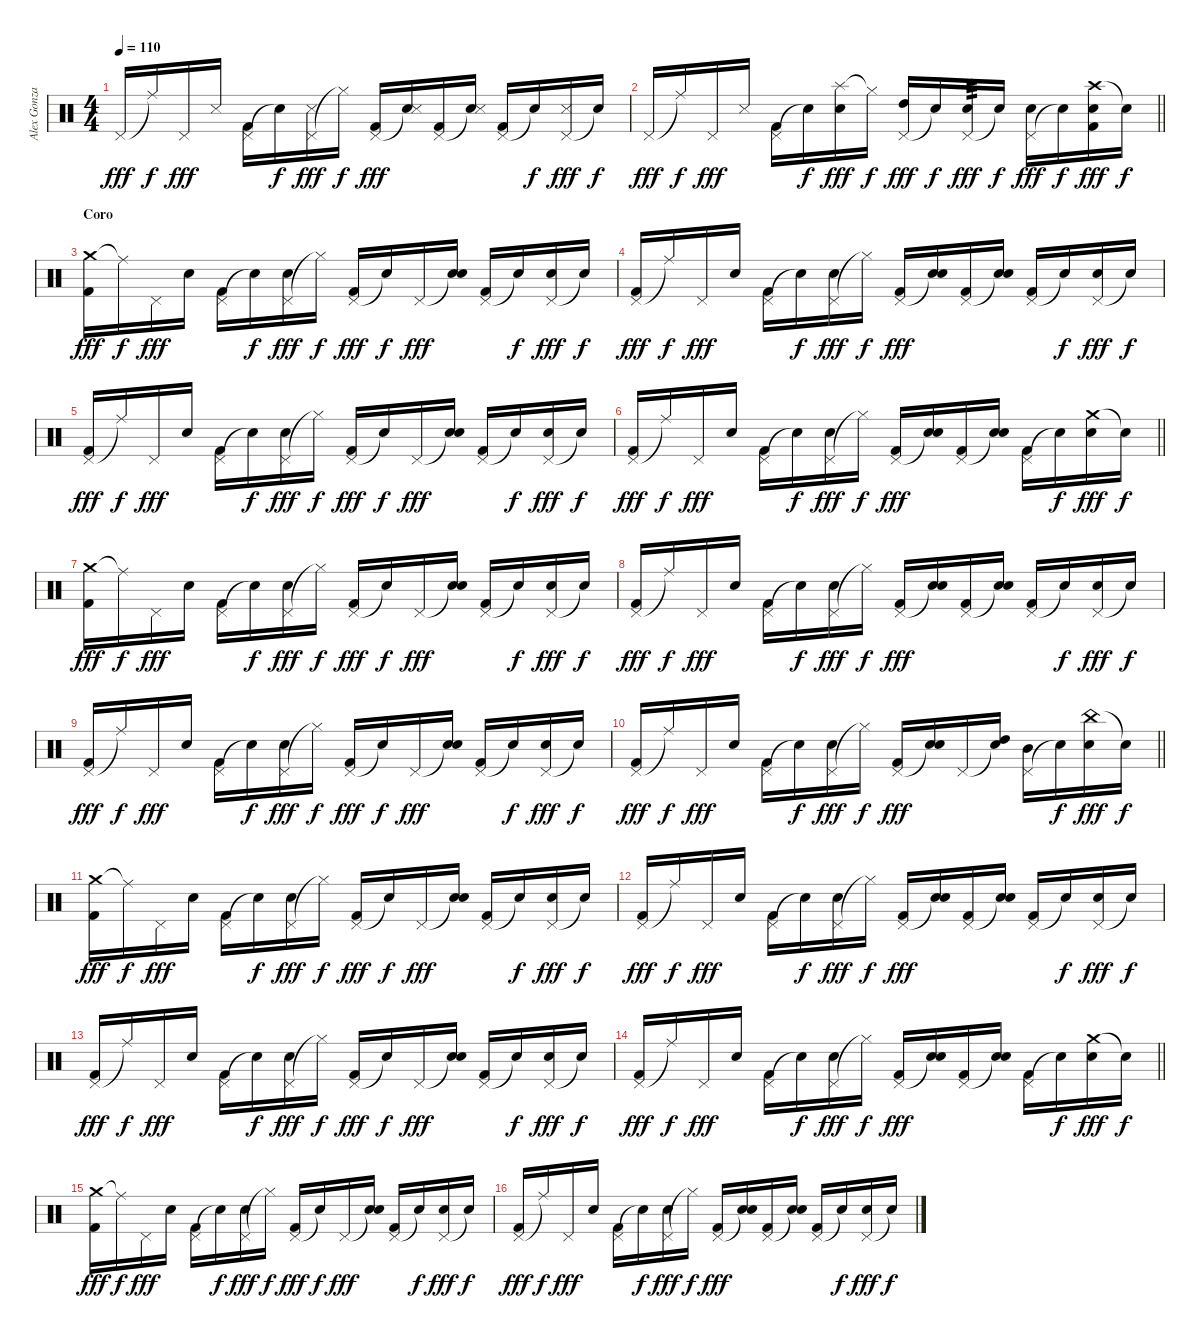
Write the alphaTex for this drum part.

\track ("Alex Gonzalez" "Alex Gonza") {instrument percussion}
\staff {score}
\articulation defaults
\ts (4 4)
\tempo 110
\clef neutral
\ks c "Pedal Hi-Hat (hit)".16{dy fff} "Ride (middle)"{t}.16{dy f} "Pedal Hi-Hat (hit)".16{dy fff} "Snare (side stick) 3".16
("Pedal Hi-Hat (hit)" "Kick (hit) 2").16 "Snare (hit)"{t}.16{dy f} ("Pedal Hi-Hat (hit)" "Snare (side stick) 3").16{dy fff} "Hi-Hat (closed)"{t}.16{dy f} ("Pedal Hi-Hat (hit)" "Kick (hit) 2").16{dy fff} ("Snare (hit)"{t} "Snare (side stick) 3").16 ("Pedal Hi-Hat (hit)" "Kick (hit) 2").16 ("Snare (hit)"{t} "Snare (side stick) 3").16 ("Pedal Hi-Hat (hit)" "Kick (hit) 2").16 "Snare (hit)"{t}.16{dy f} ("Pedal Hi-Hat (hit)" "Snare (side stick) 3").16{dy fff} "Snare (hit)"{t}.16{dy f} |
\barLineRight lightlight "Pedal Hi-Hat (hit)".16{dy fff} "Ride (middle)"{t}.16{dy f} "Pedal Hi-Hat (hit)".16{dy fff} "Snare (side stick) 3".16
("Pedal Hi-Hat (hit)" "Kick (hit) 2").16 "Snare (hit)"{t}.16{dy f} ("Splash (hit)" "Electric Snare (hit)").16{dy fff} "Hi-Hat (closed)"{t}.16{dy f} ("Pedal Hi-Hat (hit)" "High Tom (hit)").16{dy fff} "Snare (hit)"{t}.16{dy f} ("Pedal Hi-Hat (hit)" "Electric Snare (hit)").16{tp 3 dy fff} "Snare (hit)"{t}.16{dy f} ("Pedal Hi-Hat (hit)" "Electric Snare (hit)").16{dy fff} "Snare (hit)"{t}.16{dy f} ("Crash high (hit)" "Electric Snare (hit)" "Kick (hit) 2").16{dy fff} "Snare (hit)"{t}.16{dy f} |
\section ("" "Coro")
("Crash medium (hit)" "Kick (hit) 2").16{dy fff} "Ride (middle)"{t}.16{dy f} "Pedal Hi-Hat (hit)".16{dy fff} "Electric Snare (hit)".16 ("Pedal Hi-Hat (hit)" "Kick (hit) 2").16 "Snare (hit)"{t}.16{dy f} ("Pedal Hi-Hat (hit)" "Electric Snare (hit)").16{dy fff} "Hi-Hat (closed)"{t}.16{dy f} ("Pedal Hi-Hat (hit)" "Kick (hit) 2").16{dy fff} "Snare (hit)"{t}.16{dy f} "Pedal Hi-Hat (hit)".16{dy fff} ("Snare (hit)"{t} "Electric Snare (hit)").16 ("Pedal Hi-Hat (hit)" "Kick (hit) 2").16 "Snare (hit)"{t}.16{dy f} ("Pedal Hi-Hat (hit)" "Electric Snare (hit)").16{dy fff} "Snare (hit)"{t}.16{dy f} |
("Pedal Hi-Hat (hit)" "Kick (hit) 2").16{dy fff} "Ride (middle)"{t}.16{dy f} "Pedal Hi-Hat (hit)".16{dy fff} "Electric Snare (hit)".16 ("Pedal Hi-Hat (hit)" "Kick (hit) 2").16 "Snare (hit)"{t}.16{dy f} ("Pedal Hi-Hat (hit)" "Electric Snare (hit)").16{dy fff} "Hi-Hat (closed)"{t}.16{dy f} ("Pedal Hi-Hat (hit)" "Kick (hit) 2").16{dy fff} ("Snare (hit)"{t} "Electric Snare (hit)").16 ("Pedal Hi-Hat (hit)" "Kick (hit) 2").16 ("Snare (hit)"{t} "Electric Snare (hit)").16 ("Pedal Hi-Hat (hit)" "Kick (hit) 2").16 "Snare (hit)"{t}.16{dy f} ("Pedal Hi-Hat (hit)" "Electric Snare (hit)").16{dy fff} "Snare (hit)"{t}.16{dy f} |
("Pedal Hi-Hat (hit)" "Kick (hit) 2").16{dy fff} "Ride (middle)"{t}.16{dy f} "Pedal Hi-Hat (hit)".16{dy fff} "Electric Snare (hit)".16 ("Pedal Hi-Hat (hit)" "Kick (hit) 2").16 "Snare (hit)"{t}.16{dy f} ("Pedal Hi-Hat (hit)" "Electric Snare (hit)").16{dy fff} "Hi-Hat (closed)"{t}.16{dy f} ("Pedal Hi-Hat (hit)" "Kick (hit) 2").16{dy fff} "Snare (hit)"{t}.16{dy f} "Pedal Hi-Hat (hit)".16{dy fff} ("Snare (hit)"{t} "Electric Snare (hit)").16 ("Pedal Hi-Hat (hit)" "Kick (hit) 2").16 "Snare (hit)"{t}.16{dy f} ("Pedal Hi-Hat (hit)" "Electric Snare (hit)").16{dy fff} "Snare (hit)"{t}.16{dy f} |
\barLineRight lightlight
("Pedal Hi-Hat (hit)" "Kick (hit) 2").16{dy fff} "Ride (middle)"{t}.16{dy f} "Pedal Hi-Hat (hit)".16{dy fff} "Electric Snare (hit)".16 ("Pedal Hi-Hat (hit)" "Kick (hit) 2").16 "Snare (hit)"{t}.16{dy f} ("Pedal Hi-Hat (hit)" "Electric Snare (hit)").16{dy fff} "Hi-Hat (closed)"{t}.16{dy f} ("Pedal Hi-Hat (hit)" "Kick (hit) 2").16{dy fff} ("Snare (hit)"{t} "Electric Snare (hit)").16 ("Pedal Hi-Hat (hit)" "Kick (hit) 2").16 ("Snare (hit)"{t} "Electric Snare (hit)").16 ("Pedal Hi-Hat (hit)" "Kick (hit) 2").16 "Snare (hit)"{t}.16{dy f} ("Crash medium (hit)" "Electric Snare (hit)").16{dy fff} "Snare (hit)"{t}.16{dy f} |
("Crash medium (hit)" "Kick (hit) 2").16{dy fff} "Ride (middle)"{t}.16{dy f} "Pedal Hi-Hat (hit)".16{dy fff} "Electric Snare (hit)".16 ("Pedal Hi-Hat (hit)" "Kick (hit) 2").16 "Snare (hit)"{t}.16{dy f} ("Pedal Hi-Hat (hit)" "Electric Snare (hit)").16{dy fff} "Hi-Hat (closed)"{t}.16{dy f} ("Pedal Hi-Hat (hit)" "Kick (hit) 2").16{dy fff} "Snare (hit)"{t}.16{dy f} "Pedal Hi-Hat (hit)".16{dy fff} ("Snare (hit)"{t} "Electric Snare (hit)").16 ("Pedal Hi-Hat (hit)" "Kick (hit) 2").16 "Snare (hit)"{t}.16{dy f} ("Pedal Hi-Hat (hit)" "Electric Snare (hit)").16{dy fff} "Snare (hit)"{t}.16{dy f} |
("Pedal Hi-Hat (hit)" "Kick (hit) 2").16{dy fff} "Ride (middle)"{t}.16{dy f} "Pedal Hi-Hat (hit)".16{dy fff} "Electric Snare (hit)".16 ("Pedal Hi-Hat (hit)" "Kick (hit) 2").16 "Snare (hit)"{t}.16{dy f} ("Pedal Hi-Hat (hit)" "Electric Snare (hit)").16{dy fff} "Hi-Hat (closed)"{t}.16{dy f} ("Pedal Hi-Hat (hit)" "Kick (hit) 2").16{dy fff} ("Snare (hit)"{t} "Electric Snare (hit)").16 ("Pedal Hi-Hat (hit)" "Kick (hit) 2").16 ("Snare (hit)"{t} "Electric Snare (hit)").16 ("Pedal Hi-Hat (hit)" "Kick (hit) 2").16 "Snare (hit)"{t}.16{dy f} ("Pedal Hi-Hat (hit)" "Electric Snare (hit)").16{dy fff} "Snare (hit)"{t}.16{dy f} |
("Pedal Hi-Hat (hit)" "Kick (hit) 2").16{dy fff} "Ride (middle)"{t}.16{dy f} "Pedal Hi-Hat (hit)".16{dy fff} "Electric Snare (hit)".16 ("Pedal Hi-Hat (hit)" "Kick (hit) 2").16 "Snare (hit)"{t}.16{dy f} ("Pedal Hi-Hat (hit)" "Electric Snare (hit)").16{dy fff} "Hi-Hat (closed)"{t}.16{dy f} ("Pedal Hi-Hat (hit)" "Kick (hit) 2").16{dy fff} "Snare (hit)"{t}.16{dy f} "Pedal Hi-Hat (hit)".16{dy fff} ("Snare (hit)"{t} "Electric Snare (hit)").16 ("Pedal Hi-Hat (hit)" "Kick (hit) 2").16 "Snare (hit)"{t}.16{dy f} ("Pedal Hi-Hat (hit)" "Electric Snare (hit)").16{dy fff} "Snare (hit)"{t}.16{dy f} |
\barLineRight lightlight
("Pedal Hi-Hat (hit)" "Kick (hit) 2").16{dy fff} "Ride (middle)"{t}.16{dy f} "Pedal Hi-Hat (hit)".16{dy fff} "Electric Snare (hit)".16 ("Pedal Hi-Hat (hit)" "Kick (hit) 2").16 "Snare (hit)"{t}.16{dy f} ("Pedal Hi-Hat (hit)" "Electric Snare (hit)").16{dy fff} "Hi-Hat (closed)"{t}.16{dy f} ("Pedal Hi-Hat (hit)" "Kick (hit) 2").16{dy fff} ("Snare (hit)"{t} "Electric Snare (hit)").16 "Pedal Hi-Hat (hit)".16 ("Snare (hit)"{t} "High Tom (hit)").16 ("Pedal Hi-Hat (hit)" "Mid Tom (hit)").16 "Snare (hit)"{t}.16{dy f} ("China (hit)" "Electric Snare (hit)").16{dy fff} "Snare (hit)"{t}.16{dy f} |
("Crash medium (hit)" "Kick (hit) 2").16{dy fff} "Ride (middle)"{t}.16{dy f} "Pedal Hi-Hat (hit)".16{dy fff} "Electric Snare (hit)".16 ("Pedal Hi-Hat (hit)" "Kick (hit) 2").16 "Snare (hit)"{t}.16{dy f} ("Pedal Hi-Hat (hit)" "Electric Snare (hit)").16{dy fff} "Hi-Hat (closed)"{t}.16{dy f} ("Pedal Hi-Hat (hit)" "Kick (hit) 2").16{dy fff} "Snare (hit)"{t}.16{dy f} "Pedal Hi-Hat (hit)".16{dy fff} ("Snare (hit)"{t} "Electric Snare (hit)").16 ("Pedal Hi-Hat (hit)" "Kick (hit) 2").16 "Snare (hit)"{t}.16{dy f} ("Pedal Hi-Hat (hit)" "Electric Snare (hit)").16{dy fff} "Snare (hit)"{t}.16{dy f} |
("Pedal Hi-Hat (hit)" "Kick (hit) 2").16{dy fff} "Ride (middle)"{t}.16{dy f} "Pedal Hi-Hat (hit)".16{dy fff} "Electric Snare (hit)".16 ("Pedal Hi-Hat (hit)" "Kick (hit) 2").16 "Snare (hit)"{t}.16{dy f} ("Pedal Hi-Hat (hit)" "Electric Snare (hit)").16{dy fff} "Hi-Hat (closed)"{t}.16{dy f} ("Pedal Hi-Hat (hit)" "Kick (hit) 2").16{dy fff} ("Snare (hit)"{t} "Electric Snare (hit)").16 ("Pedal Hi-Hat (hit)" "Kick (hit) 2").16 ("Snare (hit)"{t} "Electric Snare (hit)").16 ("Pedal Hi-Hat (hit)" "Kick (hit) 2").16 "Snare (hit)"{t}.16{dy f} ("Pedal Hi-Hat (hit)" "Electric Snare (hit)").16{dy fff} "Snare (hit)"{t}.16{dy f} |
("Pedal Hi-Hat (hit)" "Kick (hit) 2").16{dy fff} "Ride (middle)"{t}.16{dy f} "Pedal Hi-Hat (hit)".16{dy fff} "Electric Snare (hit)".16 ("Pedal Hi-Hat (hit)" "Kick (hit) 2").16 "Snare (hit)"{t}.16{dy f} ("Pedal Hi-Hat (hit)" "Electric Snare (hit)").16{dy fff} "Hi-Hat (closed)"{t}.16{dy f} ("Pedal Hi-Hat (hit)" "Kick (hit) 2").16{dy fff} "Snare (hit)"{t}.16{dy f} "Pedal Hi-Hat (hit)".16{dy fff} ("Snare (hit)"{t} "Electric Snare (hit)").16 ("Pedal Hi-Hat (hit)" "Kick (hit) 2").16 "Snare (hit)"{t}.16{dy f} ("Pedal Hi-Hat (hit)" "Electric Snare (hit)").16{dy fff} "Snare (hit)"{t}.16{dy f} |
\barLineRight lightlight
("Pedal Hi-Hat (hit)" "Kick (hit) 2").16{dy fff} "Ride (middle)"{t}.16{dy f} "Pedal Hi-Hat (hit)".16{dy fff} "Electric Snare (hit)".16 ("Pedal Hi-Hat (hit)" "Kick (hit) 2").16 "Snare (hit)"{t}.16{dy f} ("Pedal Hi-Hat (hit)" "Electric Snare (hit)").16{dy fff} "Hi-Hat (closed)"{t}.16{dy f} ("Pedal Hi-Hat (hit)" "Kick (hit) 2").16{dy fff} ("Snare (hit)"{t} "Electric Snare (hit)").16 ("Pedal Hi-Hat (hit)" "Kick (hit) 2").16 ("Snare (hit)"{t} "Electric Snare (hit)").16 ("Pedal Hi-Hat (hit)" "Kick (hit) 2").16 "Snare (hit)"{t}.16{dy f} ("Crash medium (hit)" "Electric Snare (hit)").16{dy fff} "Snare (hit)"{t}.16{dy f} |
("Crash medium (hit)" "Kick (hit) 2").16{dy fff} "Ride (middle)"{t}.16{dy f} "Pedal Hi-Hat (hit)".16{dy fff} "Electric Snare (hit)".16 ("Pedal Hi-Hat (hit)" "Kick (hit) 2").16 "Snare (hit)"{t}.16{dy f} ("Pedal Hi-Hat (hit)" "Electric Snare (hit)").16{dy fff} "Hi-Hat (closed)"{t}.16{dy f} ("Pedal Hi-Hat (hit)" "Kick (hit) 2").16{dy fff} "Snare (hit)"{t}.16{dy f} "Pedal Hi-Hat (hit)".16{dy fff} ("Snare (hit)"{t} "Electric Snare (hit)").16 ("Pedal Hi-Hat (hit)" "Kick (hit) 2").16 "Snare (hit)"{t}.16{dy f} ("Pedal Hi-Hat (hit)" "Electric Snare (hit)").16{dy fff} "Snare (hit)"{t}.16{dy f} |
("Pedal Hi-Hat (hit)" "Kick (hit) 2").16{dy fff} "Ride (middle)"{t}.16{dy f} "Pedal Hi-Hat (hit)".16{dy fff} "Electric Snare (hit)".16 ("Pedal Hi-Hat (hit)" "Kick (hit) 2").16 "Snare (hit)"{t}.16{dy f} ("Pedal Hi-Hat (hit)" "Electric Snare (hit)").16{dy fff} "Hi-Hat (closed)"{t}.16{dy f} ("Pedal Hi-Hat (hit)" "Kick (hit) 2").16{dy fff} ("Snare (hit)"{t} "Electric Snare (hit)").16 ("Pedal Hi-Hat (hit)" "Kick (hit) 2").16 ("Snare (hit)"{t} "Electric Snare (hit)").16 ("Pedal Hi-Hat (hit)" "Kick (hit) 2").16 "Snare (hit)"{t}.16{dy f} ("Pedal Hi-Hat (hit)" "Electric Snare (hit)").16{dy fff} "Snare (hit)"{t}.16{dy f}
